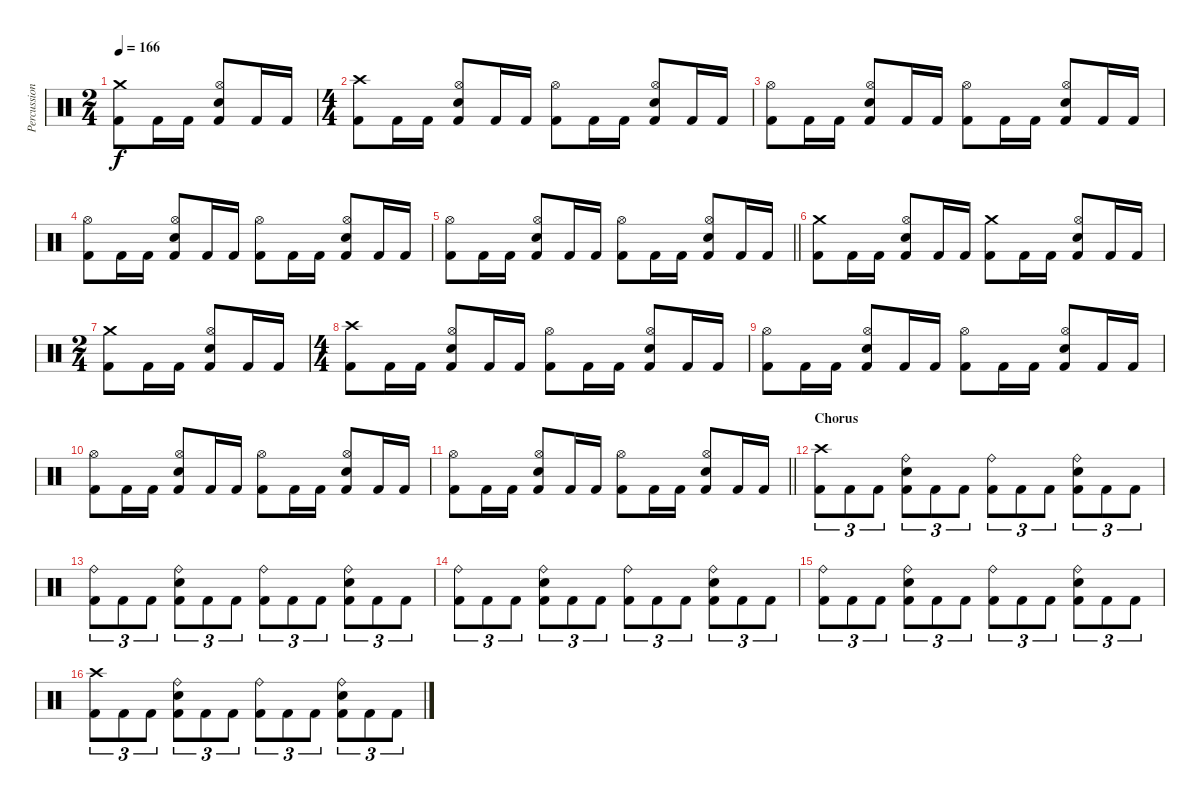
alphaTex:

\track ("Percussion" "Percussion") {instrument percussion}
\staff {score}
\articulation defaults
\ts (2 4)
\tempo 166
\clef neutral
\ks c
("Crash medium (hit)" "Kick (hit) 2").8{dy f} "Kick (hit) 2".16 "Kick (hit) 2".16 ("Hi-Hat (open)" "Snare (hit) 2" "Kick (hit) 2").8 "Kick (hit) 2".16 "Kick (hit) 2".16 |
\ts (4 4)
("Crash high (hit)" "Kick (hit) 2").8 "Kick (hit) 2".16 "Kick (hit) 2".16 ("Hi-Hat (open)" "Snare (hit) 2" "Kick (hit) 2").8 "Kick (hit) 2".16 "Kick (hit) 2".16 ("Hi-Hat (open)" "Kick (hit) 2").8 "Kick (hit) 2".16 "Kick (hit) 2".16 ("Hi-Hat (open)" "Snare (hit) 2" "Kick (hit) 2").8 "Kick (hit) 2".16 "Kick (hit) 2".16 |
("Hi-Hat (open)" "Kick (hit) 2").8 "Kick (hit) 2".16 "Kick (hit) 2".16 ("Hi-Hat (open)" "Snare (hit) 2" "Kick (hit) 2").8 "Kick (hit) 2".16 "Kick (hit) 2".16 ("Hi-Hat (open)" "Kick (hit) 2").8 "Kick (hit) 2".16 "Kick (hit) 2".16 ("Hi-Hat (open)" "Snare (hit) 2" "Kick (hit) 2").8 "Kick (hit) 2".16 "Kick (hit) 2".16 |
("Hi-Hat (open)" "Kick (hit) 2").8 "Kick (hit) 2".16 "Kick (hit) 2".16 ("Hi-Hat (open)" "Snare (hit) 2" "Kick (hit) 2").8 "Kick (hit) 2".16 "Kick (hit) 2".16 ("Hi-Hat (open)" "Kick (hit) 2").8 "Kick (hit) 2".16 "Kick (hit) 2".16 ("Hi-Hat (open)" "Snare (hit) 2" "Kick (hit) 2").8 "Kick (hit) 2".16 "Kick (hit) 2".16 |
\barLineRight lightlight
("Hi-Hat (open)" "Kick (hit) 2").8 "Kick (hit) 2".16 "Kick (hit) 2".16 ("Hi-Hat (open)" "Snare (hit) 2" "Kick (hit) 2").8 "Kick (hit) 2".16 "Kick (hit) 2".16 ("Hi-Hat (open)" "Kick (hit) 2").8 "Kick (hit) 2".16 "Kick (hit) 2".16 ("Hi-Hat (open)" "Snare (hit) 2" "Kick (hit) 2").8 "Kick (hit) 2".16 "Kick (hit) 2".16 |
("Crash medium (hit)" "Kick (hit) 2").8 "Kick (hit) 2".16 "Kick (hit) 2".16 ("Hi-Hat (open)" "Snare (hit) 2" "Kick (hit) 2").8 "Kick (hit) 2".16 "Kick (hit) 2".16 ("Crash medium (hit)" "Kick (hit) 2").8 "Kick (hit) 2".16 "Kick (hit) 2".16 ("Hi-Hat (open)" "Snare (hit) 2" "Kick (hit) 2").8 "Kick (hit) 2".16 "Kick (hit) 2".16 |
\ts (2 4)
("Crash medium (hit)" "Kick (hit) 2").8 "Kick (hit) 2".16 "Kick (hit) 2".16 ("Hi-Hat (open)" "Snare (hit) 2" "Kick (hit) 2").8 "Kick (hit) 2".16 "Kick (hit) 2".16 |
\ts (4 4)
("Crash high (hit)" "Kick (hit) 2").8 "Kick (hit) 2".16 "Kick (hit) 2".16 ("Hi-Hat (open)" "Snare (hit) 2" "Kick (hit) 2").8 "Kick (hit) 2".16 "Kick (hit) 2".16 ("Hi-Hat (open)" "Kick (hit) 2").8 "Kick (hit) 2".16 "Kick (hit) 2".16 ("Hi-Hat (open)" "Snare (hit) 2" "Kick (hit) 2").8 "Kick (hit) 2".16 "Kick (hit) 2".16 |
("Hi-Hat (open)" "Kick (hit) 2").8 "Kick (hit) 2".16 "Kick (hit) 2".16 ("Hi-Hat (open)" "Snare (hit) 2" "Kick (hit) 2").8 "Kick (hit) 2".16 "Kick (hit) 2".16 ("Hi-Hat (open)" "Kick (hit) 2").8 "Kick (hit) 2".16 "Kick (hit) 2".16 ("Hi-Hat (open)" "Snare (hit) 2" "Kick (hit) 2").8 "Kick (hit) 2".16 "Kick (hit) 2".16 |
("Hi-Hat (open)" "Kick (hit) 2").8 "Kick (hit) 2".16 "Kick (hit) 2".16 ("Hi-Hat (open)" "Snare (hit) 2" "Kick (hit) 2").8 "Kick (hit) 2".16 "Kick (hit) 2".16 ("Hi-Hat (open)" "Kick (hit) 2").8 "Kick (hit) 2".16 "Kick (hit) 2".16 ("Hi-Hat (open)" "Snare (hit) 2" "Kick (hit) 2").8 "Kick (hit) 2".16 "Kick (hit) 2".16 |
\barLineRight lightlight
("Hi-Hat (open)" "Kick (hit) 2").8 "Kick (hit) 2".16 "Kick (hit) 2".16 ("Hi-Hat (open)" "Snare (hit) 2" "Kick (hit) 2").8 "Kick (hit) 2".16 "Kick (hit) 2".16 ("Hi-Hat (open)" "Kick (hit) 2").8 "Kick (hit) 2".16 "Kick (hit) 2".16 ("Hi-Hat (open)" "Snare (hit) 2" "Kick (hit) 2").8 "Kick (hit) 2".16 "Kick (hit) 2".16 |
\section ("" "Chorus")
("Crash high (hit)" "Kick (hit) 2").8{tu (3 2)} "Kick (hit) 2".8{tu (3 2)} "Kick (hit) 2".8{tu (3 2)} ("Ride (bell)" "Snare (hit) 2" "Kick (hit) 2").8{tu (3 2)} "Kick (hit) 2".8{tu (3 2)} "Kick (hit) 2".8{tu (3 2)} ("Ride (bell)" "Kick (hit) 2").8{tu (3 2)} "Kick (hit) 2".8{tu (3 2)} "Kick (hit) 2".8{tu (3 2)} ("Ride (bell)" "Snare (hit) 2" "Kick (hit) 2").8{tu (3 2)} "Kick (hit) 2".8{tu (3 2)} "Kick (hit) 2".8{tu (3 2)} |
("Ride (bell)" "Kick (hit) 2").8{tu (3 2)} "Kick (hit) 2".8{tu (3 2)} "Kick (hit) 2".8{tu (3 2)} ("Ride (bell)" "Snare (hit) 2" "Kick (hit) 2").8{tu (3 2)} "Kick (hit) 2".8{tu (3 2)} "Kick (hit) 2".8{tu (3 2)} ("Ride (bell)" "Kick (hit) 2").8{tu (3 2)} "Kick (hit) 2".8{tu (3 2)} "Kick (hit) 2".8{tu (3 2)} ("Ride (bell)" "Snare (hit) 2" "Kick (hit) 2").8{tu (3 2)} "Kick (hit) 2".8{tu (3 2)} "Kick (hit) 2".8{tu (3 2)} |
("Ride (bell)" "Kick (hit) 2").8{tu (3 2)} "Kick (hit) 2".8{tu (3 2)} "Kick (hit) 2".8{tu (3 2)} ("Ride (bell)" "Snare (hit) 2" "Kick (hit) 2").8{tu (3 2)} "Kick (hit) 2".8{tu (3 2)} "Kick (hit) 2".8{tu (3 2)} ("Ride (bell)" "Kick (hit) 2").8{tu (3 2)} "Kick (hit) 2".8{tu (3 2)} "Kick (hit) 2".8{tu (3 2)} ("Ride (bell)" "Snare (hit) 2" "Kick (hit) 2").8{tu (3 2)} "Kick (hit) 2".8{tu (3 2)} "Kick (hit) 2".8{tu (3 2)} |
("Ride (bell)" "Kick (hit) 2").8{tu (3 2)} "Kick (hit) 2".8{tu (3 2)} "Kick (hit) 2".8{tu (3 2)} ("Ride (bell)" "Snare (hit) 2" "Kick (hit) 2").8{tu (3 2)} "Kick (hit) 2".8{tu (3 2)} "Kick (hit) 2".8{tu (3 2)} ("Ride (bell)" "Kick (hit) 2").8{tu (3 2)} "Kick (hit) 2".8{tu (3 2)} "Kick (hit) 2".8{tu (3 2)} ("Ride (bell)" "Snare (hit) 2" "Kick (hit) 2").8{tu (3 2)} "Kick (hit) 2".8{tu (3 2)} "Kick (hit) 2".8{tu (3 2)} |
("Crash high (hit)" "Kick (hit) 2").8{tu (3 2)} "Kick (hit) 2".8{tu (3 2)} "Kick (hit) 2".8{tu (3 2)} ("Ride (bell)" "Snare (hit) 2" "Kick (hit) 2").8{tu (3 2)} "Kick (hit) 2".8{tu (3 2)} "Kick (hit) 2".8{tu (3 2)} ("Ride (bell)" "Kick (hit) 2").8{tu (3 2)} "Kick (hit) 2".8{tu (3 2)} "Kick (hit) 2".8{tu (3 2)} ("Ride (bell)" "Snare (hit) 2" "Kick (hit) 2").8{tu (3 2)} "Kick (hit) 2".8{tu (3 2)} "Kick (hit) 2".8{tu (3 2)}
